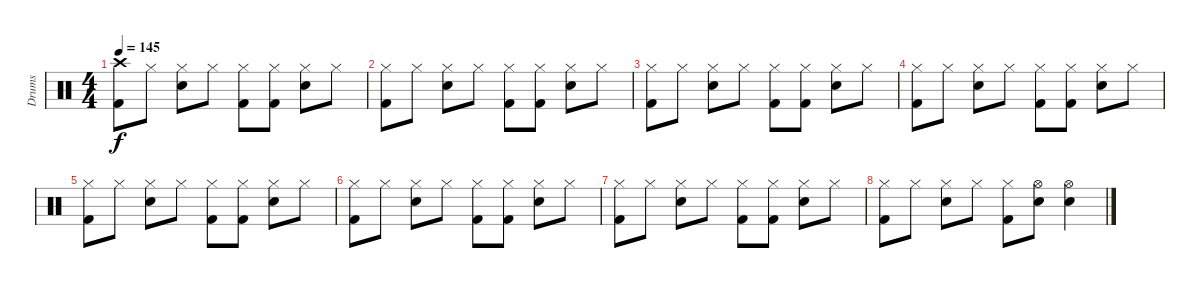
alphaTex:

\track ("Drums" "Drums") {instrument percussion}
\staff {score}
\articulation defaults
\ts (4 4)
\tempo 145
\clef neutral
\ks c
("Crash high (hit)" "Kick (hit) 2").8{dy f} "Hi-Hat (closed)".8 ("Hi-Hat (closed)" "Electric Snare (hit)").8 "Hi-Hat (closed)".8 ("Hi-Hat (closed)" "Kick (hit) 2").8 ("Hi-Hat (closed)" "Kick (hit) 2").8 ("Hi-Hat (closed)" "Electric Snare (hit)").8 "Hi-Hat (closed)".8 |
("Hi-Hat (closed)" "Kick (hit) 2").8 "Hi-Hat (closed)".8 ("Hi-Hat (closed)" "Electric Snare (hit)").8 "Hi-Hat (closed)".8 ("Hi-Hat (closed)" "Kick (hit) 2").8 ("Hi-Hat (closed)" "Kick (hit) 2").8 ("Hi-Hat (closed)" "Electric Snare (hit)").8 "Hi-Hat (closed)".8 |
("Hi-Hat (closed)" "Kick (hit) 2").8 "Hi-Hat (closed)".8 ("Hi-Hat (closed)" "Electric Snare (hit)").8 "Hi-Hat (closed)".8 ("Hi-Hat (closed)" "Kick (hit) 2").8 ("Hi-Hat (closed)" "Kick (hit) 2").8 ("Hi-Hat (closed)" "Electric Snare (hit)").8 "Hi-Hat (closed)".8 |
("Hi-Hat (closed)" "Kick (hit) 2").8 "Hi-Hat (closed)".8 ("Hi-Hat (closed)" "Electric Snare (hit)").8 "Hi-Hat (closed)".8 ("Hi-Hat (closed)" "Kick (hit) 2").8 ("Hi-Hat (closed)" "Kick (hit) 2").8 ("Hi-Hat (closed)" "Electric Snare (hit)").8 "Hi-Hat (closed)".8 |
("Hi-Hat (closed)" "Kick (hit) 2").8 "Hi-Hat (closed)".8 ("Hi-Hat (closed)" "Electric Snare (hit)").8 "Hi-Hat (closed)".8 ("Hi-Hat (closed)" "Kick (hit) 2").8 ("Hi-Hat (closed)" "Kick (hit) 2").8 ("Hi-Hat (closed)" "Electric Snare (hit)").8 "Hi-Hat (closed)".8 |
("Hi-Hat (closed)" "Kick (hit) 2").8 "Hi-Hat (closed)".8 ("Hi-Hat (closed)" "Electric Snare (hit)").8 "Hi-Hat (closed)".8 ("Hi-Hat (closed)" "Kick (hit) 2").8 ("Hi-Hat (closed)" "Kick (hit) 2").8 ("Hi-Hat (closed)" "Electric Snare (hit)").8 "Hi-Hat (closed)".8 |
("Hi-Hat (closed)" "Kick (hit) 2").8 "Hi-Hat (closed)".8 ("Hi-Hat (closed)" "Electric Snare (hit)").8 "Hi-Hat (closed)".8 ("Hi-Hat (closed)" "Kick (hit) 2").8 ("Hi-Hat (closed)" "Kick (hit) 2").8 ("Hi-Hat (closed)" "Electric Snare (hit)").8 "Hi-Hat (closed)".8 |
("Hi-Hat (closed)" "Kick (hit) 2").8 "Hi-Hat (closed)".8 ("Hi-Hat (closed)" "Electric Snare (hit)").8 "Hi-Hat (closed)".8 ("Hi-Hat (closed)" "Kick (hit) 2").8 ("Hi-Hat (open)" "Electric Snare (hit)").8 ("Hi-Hat (open)" "Electric Snare (hit)").4
